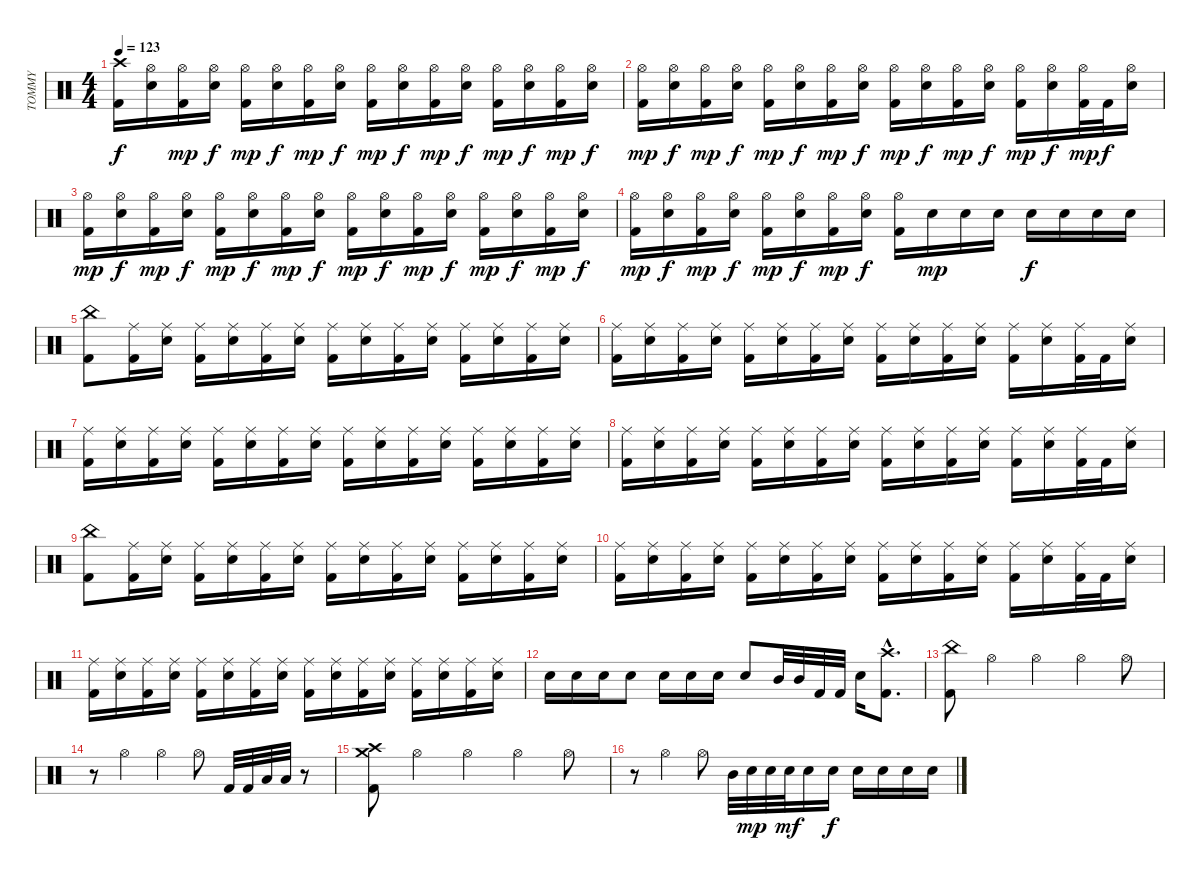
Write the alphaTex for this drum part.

\track ("TOMMY" "TOMMY") {instrument percussion}
\staff {score}
\articulation defaults
\ts (4 4)
\tempo 123
\clef neutral
\ks c
("Kick (hit) 2" "Crash high (hit)").16{dy f} ("Snare (hit) 2" "Hi-Hat (open)").16 ("Kick (hit) 2" "Hi-Hat (open)").16{dy mp} ("Snare (hit) 2" "Hi-Hat (open)").16{dy f} ("Kick (hit) 2" "Hi-Hat (open)").16{dy mp} ("Snare (hit) 2" "Hi-Hat (open)").16{dy f} ("Kick (hit) 2" "Hi-Hat (open)").16{dy mp} ("Snare (hit) 2" "Hi-Hat (open)").16{dy f} ("Kick (hit) 2" "Hi-Hat (open)").16{dy mp} ("Snare (hit) 2" "Hi-Hat (open)").16{dy f} ("Kick (hit) 2" "Hi-Hat (open)").16{dy mp} ("Snare (hit) 2" "Hi-Hat (open)").16{dy f} ("Kick (hit) 2" "Hi-Hat (open)").16{dy mp} ("Snare (hit) 2" "Hi-Hat (open)").16{dy f} ("Kick (hit) 2" "Hi-Hat (open)").16{dy mp} ("Snare (hit) 2" "Hi-Hat (open)").16{dy f} |
("Kick (hit) 2" "Hi-Hat (open)").16{dy mp} ("Snare (hit) 2" "Hi-Hat (open)").16{dy f} ("Kick (hit) 2" "Hi-Hat (open)").16{dy mp} ("Snare (hit) 2" "Hi-Hat (open)").16{dy f} ("Kick (hit) 2" "Hi-Hat (open)").16{dy mp} ("Snare (hit) 2" "Hi-Hat (open)").16{dy f} ("Kick (hit) 2" "Hi-Hat (open)").16{dy mp} ("Snare (hit) 2" "Hi-Hat (open)").16{dy f} ("Kick (hit) 2" "Hi-Hat (open)").16{dy mp} ("Snare (hit) 2" "Hi-Hat (open)").16{dy f} ("Kick (hit) 2" "Hi-Hat (open)").16{dy mp} ("Snare (hit) 2" "Hi-Hat (open)").16{dy f} ("Kick (hit) 2" "Hi-Hat (open)").16{dy mp} ("Snare (hit) 2" "Hi-Hat (open)").16{dy f} ("Kick (hit) 2" "Hi-Hat (open)").32{dy mp} "Kick (hit) 2".32{dy f} ("Snare (hit) 2" "Hi-Hat (open)").16 |
("Kick (hit) 2" "Hi-Hat (open)").16{dy mp} ("Snare (hit) 2" "Hi-Hat (open)").16{dy f} ("Kick (hit) 2" "Hi-Hat (open)").16{dy mp} ("Snare (hit) 2" "Hi-Hat (open)").16{dy f} ("Kick (hit) 2" "Hi-Hat (open)").16{dy mp} ("Snare (hit) 2" "Hi-Hat (open)").16{dy f} ("Kick (hit) 2" "Hi-Hat (open)").16{dy mp} ("Snare (hit) 2" "Hi-Hat (open)").16{dy f} ("Kick (hit) 2" "Hi-Hat (open)").16{dy mp} ("Snare (hit) 2" "Hi-Hat (open)").16{dy f} ("Kick (hit) 2" "Hi-Hat (open)").16{dy mp} ("Snare (hit) 2" "Hi-Hat (open)").16{dy f} ("Kick (hit) 2" "Hi-Hat (open)").16{dy mp} ("Snare (hit) 2" "Hi-Hat (open)").16{dy f} ("Kick (hit) 2" "Hi-Hat (open)").16{dy mp} ("Snare (hit) 2" "Hi-Hat (open)").16{dy f} |
("Kick (hit) 2" "Hi-Hat (open)").16{dy mp} ("Snare (hit) 2" "Hi-Hat (open)").16{dy f} ("Kick (hit) 2" "Hi-Hat (open)").16{dy mp} ("Snare (hit) 2" "Hi-Hat (open)").16{dy f} ("Kick (hit) 2" "Hi-Hat (open)").16{dy mp} ("Snare (hit) 2" "Hi-Hat (open)").16{dy f} ("Kick (hit) 2" "Hi-Hat (open)").16{dy mp} ("Snare (hit) 2" "Hi-Hat (open)").16{dy f} ("Kick (hit) 2" "Hi-Hat (open)").16 "Snare (hit) 2".16{dy mp} "Snare (hit) 2".16 "Snare (hit) 2".16 "Snare (hit) 2".16{dy f} "Snare (hit) 2".16 "Snare (hit) 2".16 "Snare (hit) 2".16 |
("Kick (hit) 2" "China (hit)").8 ("Kick (hit) 2" "Ride (middle)").16 ("Snare (hit) 2" "Ride (middle)").16 ("Kick (hit) 2" "Ride (middle)").16 ("Snare (hit) 2" "Ride (middle)").16 ("Kick (hit) 2" "Ride (middle)").16 ("Snare (hit) 2" "Ride (middle)").16 ("Kick (hit) 2" "Ride (middle)").16 ("Snare (hit) 2" "Ride (middle)").16 ("Kick (hit) 2" "Ride (middle)").16 ("Snare (hit) 2" "Ride (middle)").16 ("Kick (hit) 2" "Ride (middle)").16 ("Snare (hit) 2" "Ride (middle)").16 ("Kick (hit) 2" "Ride (middle)").16 ("Snare (hit) 2" "Ride (middle)").16 |
("Kick (hit) 2" "Ride (middle)").16 ("Snare (hit) 2" "Ride (middle)").16 ("Kick (hit) 2" "Ride (middle)").16 ("Snare (hit) 2" "Ride (middle)").16 ("Kick (hit) 2" "Ride (middle)").16 ("Snare (hit) 2" "Ride (middle)").16 ("Kick (hit) 2" "Ride (middle)").16 ("Snare (hit) 2" "Ride (middle)").16 ("Kick (hit) 2" "Ride (middle)").16 ("Snare (hit) 2" "Ride (middle)").16 ("Kick (hit) 2" "Ride (middle)").16 ("Snare (hit) 2" "Ride (middle)").16 ("Kick (hit) 2" "Ride (middle)").16 ("Snare (hit) 2" "Ride (middle)").16 ("Kick (hit) 2" "Ride (middle)").32 "Kick (hit) 2".32 ("Snare (hit) 2" "Ride (middle)").16 |
("Kick (hit) 2" "Ride (middle)").16 ("Snare (hit) 2" "Ride (middle)").16 ("Kick (hit) 2" "Ride (middle)").16 ("Snare (hit) 2" "Ride (middle)").16 ("Kick (hit) 2" "Ride (middle)").16 ("Snare (hit) 2" "Ride (middle)").16 ("Kick (hit) 2" "Ride (middle)").16 ("Snare (hit) 2" "Ride (middle)").16 ("Kick (hit) 2" "Ride (middle)").16 ("Snare (hit) 2" "Ride (middle)").16 ("Kick (hit) 2" "Ride (middle)").16 ("Snare (hit) 2" "Ride (middle)").16 ("Kick (hit) 2" "Ride (middle)").16 ("Snare (hit) 2" "Ride (middle)").16 ("Kick (hit) 2" "Ride (middle)").16 ("Snare (hit) 2" "Ride (middle)").16 |
("Kick (hit) 2" "Ride (middle)").16 ("Snare (hit) 2" "Ride (middle)").16 ("Kick (hit) 2" "Ride (middle)").16 ("Snare (hit) 2" "Ride (middle)").16 ("Kick (hit) 2" "Ride (middle)").16 ("Snare (hit) 2" "Ride (middle)").16 ("Kick (hit) 2" "Ride (middle)").16 ("Snare (hit) 2" "Ride (middle)").16 ("Kick (hit) 2" "Ride (middle)").16 ("Snare (hit) 2" "Ride (middle)").16 ("Kick (hit) 2" "Ride (middle)").16 ("Snare (hit) 2" "Ride (middle)").16 ("Kick (hit) 2" "Ride (middle)").16 ("Snare (hit) 2" "Ride (middle)").16 ("Kick (hit) 2" "Ride (middle)").32 "Kick (hit) 2".32 ("Snare (hit) 2" "Ride (middle)").16 |
("Kick (hit) 2" "China (hit)").8 ("Kick (hit) 2" "Ride (middle)").16 ("Snare (hit) 2" "Ride (middle)").16 ("Kick (hit) 2" "Ride (middle)").16 ("Snare (hit) 2" "Ride (middle)").16 ("Kick (hit) 2" "Ride (middle)").16 ("Snare (hit) 2" "Ride (middle)").16 ("Kick (hit) 2" "Ride (middle)").16 ("Snare (hit) 2" "Ride (middle)").16 ("Kick (hit) 2" "Ride (middle)").16 ("Snare (hit) 2" "Ride (middle)").16 ("Kick (hit) 2" "Ride (middle)").16 ("Snare (hit) 2" "Ride (middle)").16 ("Kick (hit) 2" "Ride (middle)").16 ("Snare (hit) 2" "Ride (middle)").16 |
("Kick (hit) 2" "Ride (middle)").16 ("Snare (hit) 2" "Ride (middle)").16 ("Kick (hit) 2" "Ride (middle)").16 ("Snare (hit) 2" "Ride (middle)").16 ("Kick (hit) 2" "Ride (middle)").16 ("Snare (hit) 2" "Ride (middle)").16 ("Kick (hit) 2" "Ride (middle)").16 ("Snare (hit) 2" "Ride (middle)").16 ("Kick (hit) 2" "Ride (middle)").16 ("Snare (hit) 2" "Ride (middle)").16 ("Kick (hit) 2" "Ride (middle)").16 ("Snare (hit) 2" "Ride (middle)").16 ("Kick (hit) 2" "Ride (middle)").16 ("Snare (hit) 2" "Ride (middle)").16 ("Kick (hit) 2" "Ride (middle)").32 "Kick (hit) 2".32 ("Snare (hit) 2" "Ride (middle)").16 |
("Kick (hit) 2" "Ride (middle)").16 ("Snare (hit) 2" "Ride (middle)").16 ("Kick (hit) 2" "Ride (middle)").16 ("Snare (hit) 2" "Ride (middle)").16 ("Kick (hit) 2" "Ride (middle)").16 ("Snare (hit) 2" "Ride (middle)").16 ("Kick (hit) 2" "Ride (middle)").16 ("Snare (hit) 2" "Ride (middle)").16 ("Kick (hit) 2" "Ride (middle)").16 ("Snare (hit) 2" "Ride (middle)").16 ("Kick (hit) 2" "Ride (middle)").16 ("Snare (hit) 2" "Ride (middle)").16 ("Kick (hit) 2" "Ride (middle)").16 ("Snare (hit) 2" "Ride (middle)").16 ("Kick (hit) 2" "Ride (middle)").16 ("Snare (hit) 2" "Ride (middle)").16 |
"Snare (hit) 2".16 "Snare (hit) 2".16 "Snare (hit) 2".16 "Snare (hit) 2".8 "Snare (hit) 2".16 "Snare (hit) 2".16 "Snare (hit) 2".16 "Snare (hit) 2".8 "Mid Tom (hit)".32 "Mid Tom (hit)".32 "Kick (hit) 2".32 "Kick (hit) 2".32 "Snare (hit) 2".16 ("Kick (hit) 2"{hac} "Crash high (hit)"{hac}).8{d} |
("Kick (hit) 2" "China (hit)").8 "Hi-Hat (open)".4 "Hi-Hat (open)".4 "Hi-Hat (open)".4 "Hi-Hat (open)".8 |
r.8 "Hi-Hat (open)".4 "Hi-Hat (open)".4 "Hi-Hat (open)".8 "Kick (hit) 2".32 "Kick (hit) 2".32 "Low Floor Tom (hit)".32 "Low Floor Tom (hit)".32 r.8 |
("Kick (hit) 2" "Crash high (hit)" "Crash medium (hit)").8 "Hi-Hat (open)".4 "Hi-Hat (open)".4 "Hi-Hat (open)".4 "Hi-Hat (open)".8 |
r.8 "Hi-Hat (open)".4 "Hi-Hat (open)".8 "Mid Tom (hit)".32 "Snare (hit) 2".32{dy mp} "Snare (hit) 2".32 "Snare (hit) 2".32{dy mf} "Snare (hit) 2".16 "Snare (hit) 2".16{dy f} "Snare (hit) 2".16 "Snare (hit) 2".16 "Snare (hit) 2".16 "Snare (hit) 2".16
